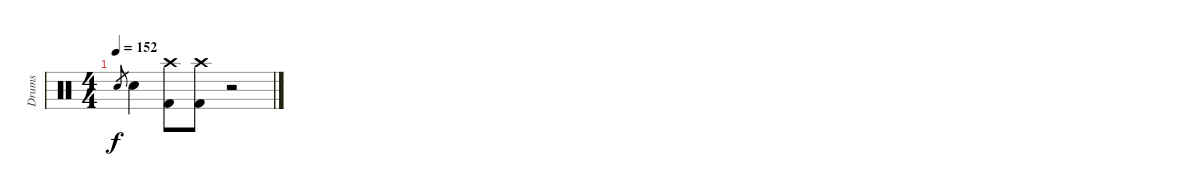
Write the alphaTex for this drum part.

\track ("Drums" "Drums") {instrument percussion}
\staff {score}
\articulation defaults
\ts (4 4)
\tempo 152
\clef neutral
\ks c "Snare (hit) 2".8{gr dy f} "Snare (hit) 2".4
("Crash high (hit)" "Kick (hit) 2").8 ("Crash high (hit)" "Kick (hit) 2").8 r.2
